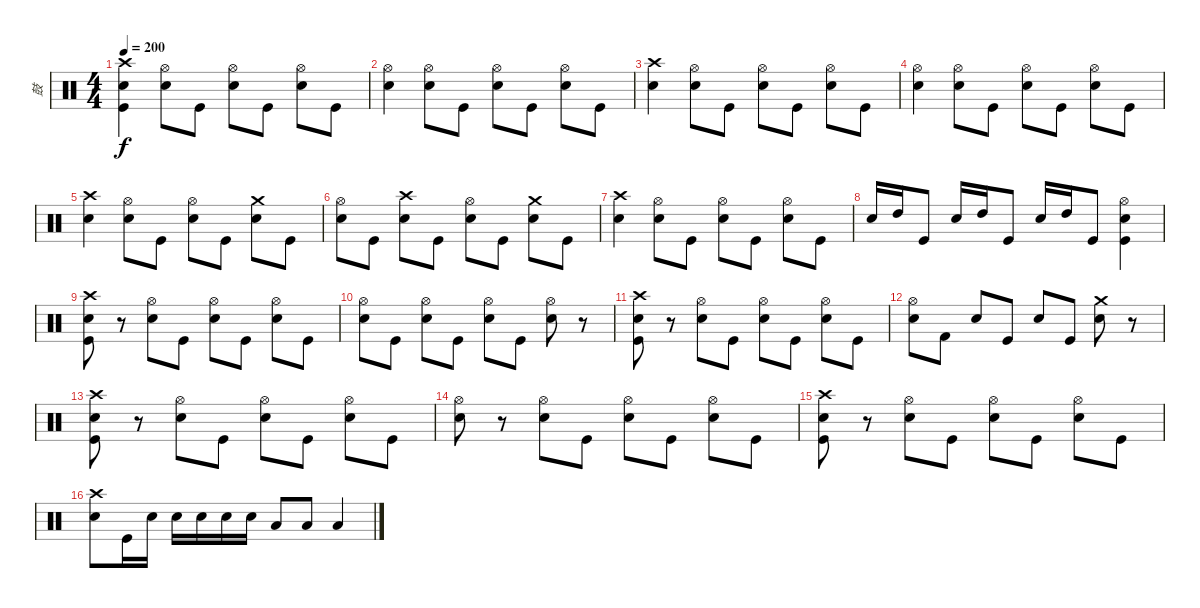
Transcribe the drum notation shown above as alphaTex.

\track ("鼓" "鼓") {instrument percussion}
\staff {score}
\articulation defaults
\ts (4 4)
\tempo 200
\clef neutral
\ks c
("Crash high (hit)" "Snare (hit) 2" "Kick (hit)").4{dy f} ("Hi-Hat (open)" "Snare (hit) 2").8 "Kick (hit)".8 ("Hi-Hat (open)" "Snare (hit) 2").8 "Kick (hit)".8 ("Hi-Hat (open)" "Snare (hit) 2").8 "Kick (hit)".8 |
("Hi-Hat (open)" "Snare (hit) 2").4 ("Hi-Hat (open)" "Snare (hit) 2").8 "Kick (hit)".8 ("Hi-Hat (open)" "Snare (hit) 2").8 "Kick (hit)".8 ("Hi-Hat (open)" "Snare (hit) 2").8 "Kick (hit)".8 |
("Crash high (hit)" "Snare (hit) 2").4 ("Hi-Hat (open)" "Snare (hit) 2").8 "Kick (hit)".8 ("Hi-Hat (open)" "Snare (hit) 2").8 "Kick (hit)".8 ("Hi-Hat (open)" "Snare (hit) 2").8 "Kick (hit)".8 |
("Hi-Hat (open)" "Snare (hit) 2").4 ("Hi-Hat (open)" "Snare (hit) 2").8 "Kick (hit)".8 ("Hi-Hat (open)" "Snare (hit) 2").8 "Kick (hit)".8 ("Hi-Hat (open)" "Snare (hit) 2").8 "Kick (hit)".8 |
("Crash high (hit)" "Snare (hit) 2").4 ("Hi-Hat (open)" "Snare (hit) 2").8 "Kick (hit)".8 ("Hi-Hat (open)" "Snare (hit) 2").8 "Kick (hit)".8 ("Crash medium (hit)" "Snare (hit) 2").8 "Kick (hit)".8 |
("Hi-Hat (open)" "Snare (hit) 2").8 "Kick (hit)".8 ("Crash high (hit)" "Snare (hit) 2").8 "Kick (hit)".8 ("Hi-Hat (open)" "Snare (hit) 2").8 "Kick (hit)".8 ("Crash medium (hit)" "Snare (hit) 2").8 "Kick (hit)".8 |
("Crash high (hit)" "Snare (hit) 2").4 ("Hi-Hat (open)" "Snare (hit) 2").8 "Kick (hit)".8 ("Hi-Hat (open)" "Snare (hit) 2").8 "Kick (hit)".8 ("Hi-Hat (open)" "Snare (hit) 2").8 "Kick (hit)".8 |
"Snare (hit) 2".16 "High Tom (hit)".16 "Kick (hit)".8 "Snare (hit) 2".16 "High Tom (hit)".16 "Kick (hit)".8 "Snare (hit) 2".16 "High Tom (hit)".16 "Kick (hit)".8 ("Hi-Hat (open)" "Snare (hit) 2" "Kick (hit)").4 |
("Crash high (hit)" "Snare (hit) 2" "Kick (hit)").8 r.8 ("Hi-Hat (open)" "Snare (hit) 2").8 "Kick (hit)".8 ("Hi-Hat (open)" "Snare (hit) 2").8 "Kick (hit)".8 ("Hi-Hat (open)" "Snare (hit) 2").8 "Kick (hit)".8 |
("Hi-Hat (open)" "Snare (hit) 2").8 "Kick (hit)".8 ("Hi-Hat (open)" "Snare (hit) 2").8 "Kick (hit)".8 ("Hi-Hat (open)" "Snare (hit) 2").8 "Kick (hit)".8 ("Hi-Hat (open)" "Snare (hit) 2").8 r.8 |
("Crash high (hit)" "Snare (hit) 2" "Kick (hit)").8 r.8 ("Hi-Hat (open)" "Snare (hit) 2").8 "Kick (hit)".8 ("Hi-Hat (open)" "Snare (hit) 2").8 "Kick (hit)".8 ("Hi-Hat (open)" "Snare (hit) 2").8 "Kick (hit)".8 |
("Hi-Hat (open)" "Snare (hit) 2").8 "Kick (hit) 2".8 "Snare (hit) 2".8 "Kick (hit)".8 "Snare (hit) 2".8 "Kick (hit)".8 ("Crash medium (hit)" "Snare (hit) 2").8 r.8 |
("Crash high (hit)" "Snare (hit) 2" "Kick (hit)").8 r.8 ("Hi-Hat (open)" "Snare (hit) 2").8 "Kick (hit)".8 ("Hi-Hat (open)" "Snare (hit) 2").8 "Kick (hit)".8 ("Hi-Hat (open)" "Snare (hit) 2").8 "Kick (hit)".8 |
("Hi-Hat (open)" "Snare (hit) 2").8 r.8 ("Hi-Hat (open)" "Snare (hit) 2").8 "Kick (hit)".8 ("Hi-Hat (open)" "Snare (hit) 2").8 "Kick (hit)".8 ("Hi-Hat (open)" "Snare (hit) 2").8 "Kick (hit)".8 |
("Crash high (hit)" "Snare (hit) 2" "Kick (hit)").8 r.8 ("Hi-Hat (open)" "Snare (hit) 2").8 "Kick (hit)".8 ("Hi-Hat (open)" "Snare (hit) 2").8 "Kick (hit)".8 ("Hi-Hat (open)" "Snare (hit) 2").8 "Kick (hit)".8 |
("Crash high (hit)" "Snare (hit) 2").8 "Kick (hit)".16 "Snare (hit) 2".16 "Snare (hit) 2".16 "Snare (hit) 2".16 "Snare (hit) 2".16 "Snare (hit) 2".16 "Low Tom (hit)".8 "Low Tom (hit)".8 "Low Floor Tom (hit)".4
